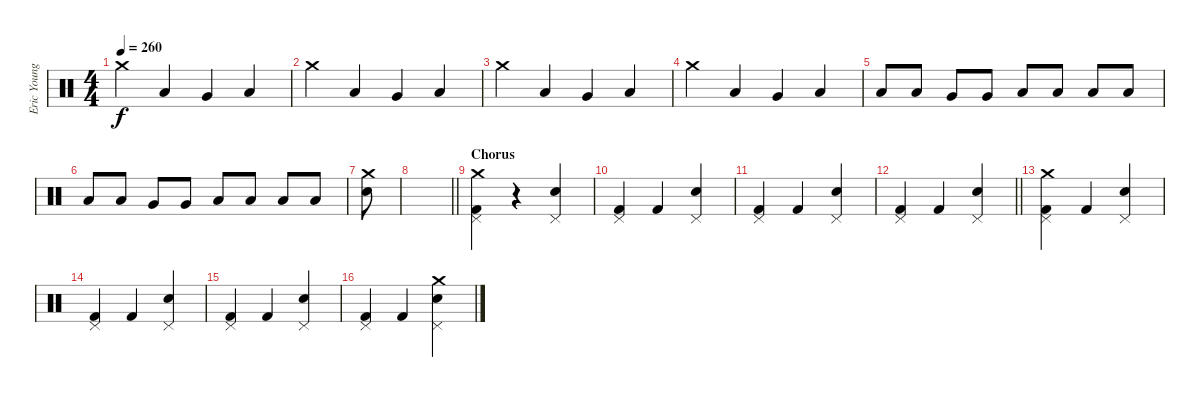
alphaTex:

\track ("Eric Young (Drums)" "Eric Young") {instrument percussion}
\staff {score}
\articulation defaults
\ts (4 4)
\tempo 260
\clef neutral
\ks c "Crash medium (hit)".4{dy f} "Low Tom (hit)".4 "Very Low Tom (hit)".4 "Low Floor Tom (hit)".4
|
"Crash medium (hit)".4 "Low Tom (hit)".4 "Very Low Tom (hit)".4 "Low Floor Tom (hit)".4 |
"Crash medium (hit)".4 "Low Tom (hit)".4 "Very Low Tom (hit)".4 "Low Floor Tom (hit)".4 |
"Crash medium (hit)".4 "Low Tom (hit)".4 "Very Low Tom (hit)".4 "Low Floor Tom (hit)".4 |
"Low Tom (hit)".8 "Low Tom (hit)".8 "Very Low Tom (hit)".8 "Very Low Tom (hit)".8 "Low Floor Tom (hit)".8 "Low Floor Tom (hit)".8 "Low Tom (hit)".8 "Low Tom (hit)".8 |
"Low Tom (hit)".8 "Low Tom (hit)".8 "Very Low Tom (hit)".8 "Very Low Tom (hit)".8 "Low Floor Tom (hit)".8 "Low Floor Tom (hit)".8 "Low Tom (hit)".8 "Low Tom (hit)".8 |
("Snare (hit) 2" "Crash medium (hit)").8 |
\barLineRight lightlight
|
\section ("" "Chorus")
("Pedal Hi-Hat (hit)" "Kick (hit) 2" "Crash medium (hit)").4 r.4 ("Pedal Hi-Hat (hit)" "Snare (hit) 2").4 |
("Pedal Hi-Hat (hit)" "Kick (hit) 2").4 "Kick (hit) 2".4 ("Pedal Hi-Hat (hit)" "Snare (hit) 2").4 |
("Pedal Hi-Hat (hit)" "Kick (hit) 2").4 "Kick (hit) 2".4 ("Pedal Hi-Hat (hit)" "Snare (hit) 2").4 |
\barLineRight lightlight
("Pedal Hi-Hat (hit)" "Kick (hit) 2").4 "Kick (hit) 2".4 ("Pedal Hi-Hat (hit)" "Snare (hit) 2").4 |
("Pedal Hi-Hat (hit)" "Kick (hit) 2" "Crash medium (hit)").4 "Kick (hit) 2".4 ("Pedal Hi-Hat (hit)" "Snare (hit) 2").4 |
("Pedal Hi-Hat (hit)" "Kick (hit) 2").4 "Kick (hit) 2".4 ("Pedal Hi-Hat (hit)" "Snare (hit) 2").4 |
("Pedal Hi-Hat (hit)" "Kick (hit) 2").4 "Kick (hit) 2".4 ("Pedal Hi-Hat (hit)" "Snare (hit) 2").4 |
("Pedal Hi-Hat (hit)" "Kick (hit) 2").4 "Kick (hit) 2".4 ("Pedal Hi-Hat (hit)" "Snare (hit) 2" "Crash medium (hit)").4
